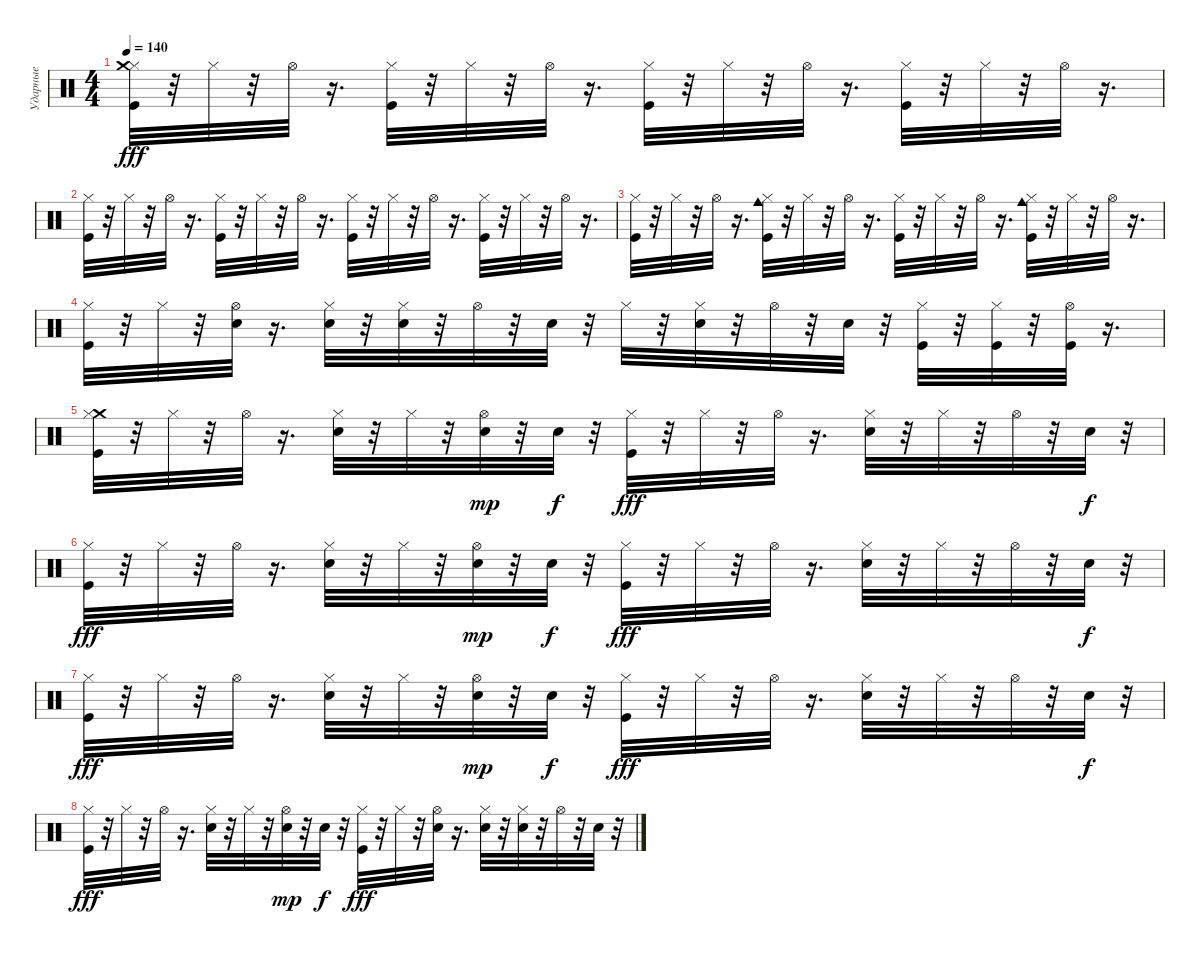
\track ("Ударные" "Ударные") {instrument percussion}
\staff {score}
\articulation defaults
\ts (4 4)
\tempo 140
\clef neutral
\ks c
("Hi-Hat (closed)" "Crash medium (hit)" "Kick (hit)").32{dy fff} r.32 "Hi-Hat (closed)".32 r.32 "Hi-Hat (open)".32 r.16{d} ("Hi-Hat (closed)" "Kick (hit)").32 r.32 "Hi-Hat (closed)".32 r.32 "Hi-Hat (open)".32 r.16{d} ("Hi-Hat (closed)" "Kick (hit)").32 r.32 "Hi-Hat (closed)".32 r.32 "Hi-Hat (open)".32 r.16{d} ("Hi-Hat (closed)" "Kick (hit)").32 r.32 "Hi-Hat (closed)".32 r.32 "Hi-Hat (open)".32 r.16{d} |
("Kick (hit)" "Hi-Hat (closed)").32 r.32 "Hi-Hat (closed)".32 r.32 "Hi-Hat (open)".32 r.16{d} ("Hi-Hat (closed)" "Kick (hit)").32 r.32 "Hi-Hat (closed)".32 r.32 "Hi-Hat (open)".32 r.16{d} ("Hi-Hat (closed)" "Kick (hit)").32 r.32 "Hi-Hat (closed)".32 r.32 "Hi-Hat (open)".32 r.16{d} ("Hi-Hat (closed)" "Kick (hit)").32 r.32 "Hi-Hat (closed)".32 r.32 "Hi-Hat (open)".32 r.16{d} |
("Kick (hit)" "Hi-Hat (closed)").32 r.32 "Hi-Hat (closed)".32 r.32 "Hi-Hat (open)".32 r.16{d} ("Hi-Hat (closed)" "Kick (hit)" "Cowbell medium (hit)").32 r.32 "Hi-Hat (closed)".32 r.32 "Hi-Hat (open)".32 r.16{d} ("Hi-Hat (closed)" "Kick (hit)").32 r.32 "Hi-Hat (closed)".32 r.32 "Hi-Hat (open)".32 r.16{d} ("Hi-Hat (closed)" "Kick (hit)" "Cowbell medium (hit)").32 r.32 "Hi-Hat (closed)".32 r.32 "Hi-Hat (open)".32 r.16{d} |
("Kick (hit)" "Hi-Hat (closed)").32 r.32 "Hi-Hat (closed)".32 r.32 ("Hi-Hat (open)" "Electric Snare (hit)").32 r.16{d} ("Hi-Hat (closed)" "Electric Snare (hit)").32 r.32 ("Hi-Hat (closed)" "Electric Snare (hit)").32 r.32 "Hi-Hat (open)".32 r.32 "Electric Snare (hit)".32 r.32 "Hi-Hat (closed)".32 r.32 ("Hi-Hat (closed)" "Electric Snare (hit)").32 r.32 "Hi-Hat (open)".32 r.32 "Electric Snare (hit)".32 r.32 ("Hi-Hat (closed)" "Kick (hit)").32 r.32 ("Hi-Hat (closed)" "Kick (hit)").32 r.32 ("Hi-Hat (open)" "Kick (hit)").32 r.16{d} |
("Crash medium (hit)" "Kick (hit)" "Hi-Hat (closed)").32 r.32 "Hi-Hat (closed)".32 r.32 "Hi-Hat (open)".32 r.16{d} ("Electric Snare (hit)" "Hi-Hat (closed)").32 r.32 "Hi-Hat (closed)".32 r.32 ("Hi-Hat (open)" "Electric Snare (hit)").32{dy mp} r.32 "Electric Snare (hit)".32{dy f} r.32 ("Kick (hit)" "Hi-Hat (closed)").32{dy fff} r.32 "Hi-Hat (closed)".32 r.32 "Hi-Hat (open)".32 r.16{d} ("Electric Snare (hit)" "Hi-Hat (closed)").32 r.32 "Hi-Hat (closed)".32 r.32 "Hi-Hat (open)".32 r.32 "Electric Snare (hit)".32{dy f} r.32 |
("Hi-Hat (closed)" "Kick (hit)").32{dy fff} r.32 "Hi-Hat (closed)".32 r.32 "Hi-Hat (open)".32 r.16{d} ("Electric Snare (hit)" "Hi-Hat (closed)").32 r.32 "Hi-Hat (closed)".32 r.32 ("Hi-Hat (open)" "Electric Snare (hit)").32{dy mp} r.32 "Electric Snare (hit)".32{dy f} r.32 ("Kick (hit)" "Hi-Hat (closed)").32{dy fff} r.32 "Hi-Hat (closed)".32 r.32 "Hi-Hat (open)".32 r.16{d} ("Electric Snare (hit)" "Hi-Hat (closed)").32 r.32 "Hi-Hat (closed)".32 r.32 "Hi-Hat (open)".32 r.32 "Electric Snare (hit)".32{dy f} r.32 |
("Hi-Hat (closed)" "Kick (hit)").32{dy fff} r.32 "Hi-Hat (closed)".32 r.32 "Hi-Hat (open)".32 r.16{d} ("Electric Snare (hit)" "Hi-Hat (closed)").32 r.32 "Hi-Hat (closed)".32 r.32 ("Hi-Hat (open)" "Electric Snare (hit)").32{dy mp} r.32 "Electric Snare (hit)".32{dy f} r.32 ("Kick (hit)" "Hi-Hat (closed)").32{dy fff} r.32 "Hi-Hat (closed)".32 r.32 "Hi-Hat (open)".32 r.16{d} ("Electric Snare (hit)" "Hi-Hat (closed)").32 r.32 "Hi-Hat (closed)".32 r.32 "Hi-Hat (open)".32 r.32 "Electric Snare (hit)".32{dy f} r.32 |
("Hi-Hat (closed)" "Kick (hit)").32{dy fff} r.32 "Hi-Hat (closed)".32 r.32 "Hi-Hat (open)".32 r.16{d} ("Electric Snare (hit)" "Hi-Hat (closed)").32 r.32 "Hi-Hat (closed)".32 r.32 ("Hi-Hat (open)" "Electric Snare (hit)").32{dy mp} r.32 "Electric Snare (hit)".32{dy f} r.32 ("Kick (hit)" "Hi-Hat (closed)").32{dy fff} r.32 "Hi-Hat (closed)".32 r.32 ("Hi-Hat (open)" "Electric Snare (hit)").32 r.16{d} ("Hi-Hat (closed)" "Electric Snare (hit)").32 r.32 ("Hi-Hat (closed)" "Electric Snare (hit)").32 r.32 "Hi-Hat (open)".32 r.32 "Electric Snare (hit)".32 r.32
